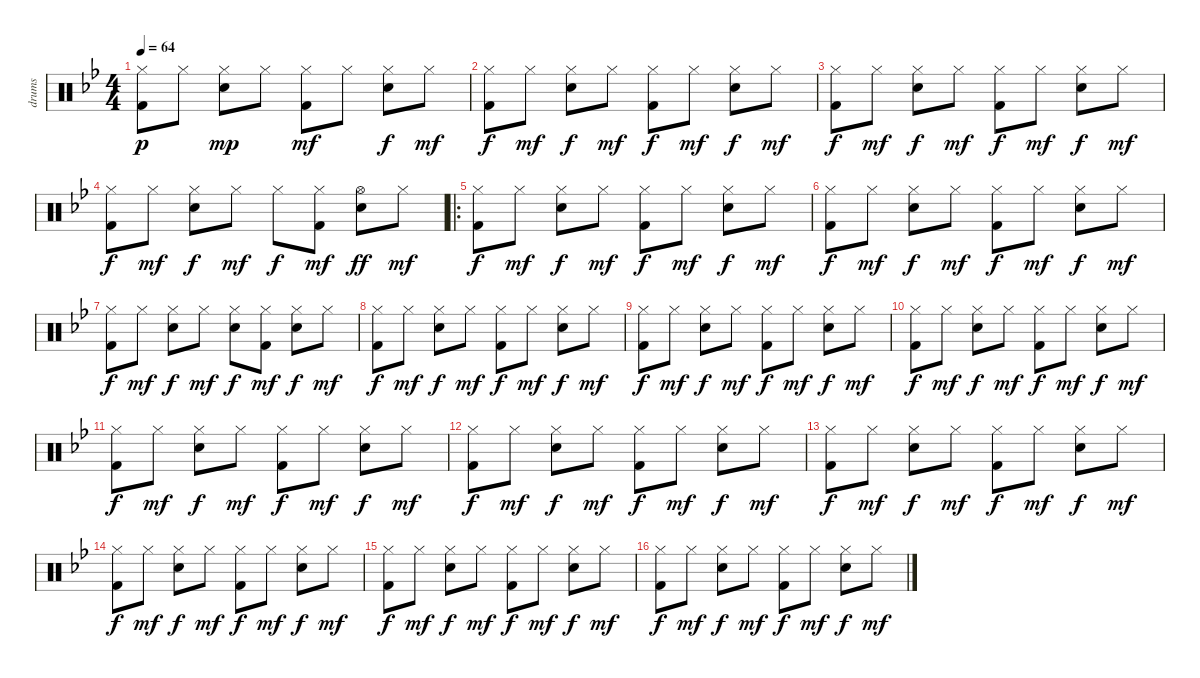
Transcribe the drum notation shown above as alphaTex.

\track ("drums" "drums") {instrument percussion}
\staff {score}
\articulation defaults
\ts (4 4)
\tempo 64
\clef neutral
\ks gminor
("Hi-Hat (closed)" "Kick (hit) 2").8{dy p} "Hi-Hat (closed)".8 ("Hi-Hat (closed)" "Snare (hit) 2").8{dy mp} "Hi-Hat (closed)".8 ("Hi-Hat (closed)" "Kick (hit) 2").8{dy mf} "Hi-Hat (closed)".8 ("Hi-Hat (closed)" "Snare (hit) 2").8{dy f} "Hi-Hat (closed)".8{dy mf} |
("Hi-Hat (closed)" "Kick (hit) 2").8{dy f} "Hi-Hat (closed)".8{dy mf} ("Hi-Hat (closed)" "Snare (hit) 2").8{dy f} "Hi-Hat (closed)".8{dy mf} ("Hi-Hat (closed)" "Kick (hit) 2").8{dy f} "Hi-Hat (closed)".8{dy mf} ("Hi-Hat (closed)" "Snare (hit) 2").8{dy f} "Hi-Hat (closed)".8{dy mf} |
("Hi-Hat (closed)" "Kick (hit) 2").8{dy f} "Hi-Hat (closed)".8{dy mf} ("Hi-Hat (closed)" "Snare (hit) 2").8{dy f} "Hi-Hat (closed)".8{dy mf} ("Hi-Hat (closed)" "Kick (hit) 2").8{dy f} "Hi-Hat (closed)".8{dy mf} ("Hi-Hat (closed)" "Snare (hit) 2").8{dy f} "Hi-Hat (closed)".8{dy mf} |
("Hi-Hat (closed)" "Kick (hit) 2").8{dy f} "Hi-Hat (closed)".8{dy mf} ("Hi-Hat (closed)" "Snare (hit) 2").8{dy f} "Hi-Hat (closed)".8{dy mf} "Hi-Hat (closed)".8{dy f} ("Hi-Hat (closed)" "Kick (hit) 2").8{dy mf} ("Hi-Hat (open)" "Snare (hit) 2").8{dy ff} "Hi-Hat (closed)".8{dy mf} |
\ro
("Hi-Hat (closed)" "Kick (hit) 2").8{dy f} "Hi-Hat (closed)".8{dy mf} ("Hi-Hat (closed)" "Snare (hit) 2").8{dy f} "Hi-Hat (closed)".8{dy mf} ("Hi-Hat (closed)" "Kick (hit) 2").8{dy f} "Hi-Hat (closed)".8{dy mf} ("Hi-Hat (closed)" "Snare (hit) 2").8{dy f} "Hi-Hat (closed)".8{dy mf} |
("Hi-Hat (closed)" "Kick (hit) 2").8{dy f} "Hi-Hat (closed)".8{dy mf} ("Hi-Hat (closed)" "Snare (hit) 2").8{dy f} "Hi-Hat (closed)".8{dy mf} ("Hi-Hat (closed)" "Kick (hit) 2").8{dy f} "Hi-Hat (closed)".8{dy mf} ("Hi-Hat (closed)" "Snare (hit) 2").8{dy f} "Hi-Hat (closed)".8{dy mf} |
("Hi-Hat (closed)" "Kick (hit) 2").8{dy f} "Hi-Hat (closed)".8{dy mf} ("Hi-Hat (closed)" "Snare (hit) 2").8{dy f} "Hi-Hat (closed)".8{dy mf} ("Hi-Hat (closed)" "Snare (hit) 2").8{dy f} ("Hi-Hat (closed)" "Kick (hit) 2").8{dy mf} ("Hi-Hat (closed)" "Snare (hit) 2").8{dy f} "Hi-Hat (closed)".8{dy mf} |
("Hi-Hat (closed)" "Kick (hit) 2").8{dy f} "Hi-Hat (closed)".8{dy mf} ("Hi-Hat (closed)" "Snare (hit) 2").8{dy f} "Hi-Hat (closed)".8{dy mf} ("Hi-Hat (closed)" "Kick (hit) 2").8{dy f} "Hi-Hat (closed)".8{dy mf} ("Hi-Hat (closed)" "Snare (hit) 2").8{dy f} "Hi-Hat (closed)".8{dy mf} |
("Hi-Hat (closed)" "Kick (hit) 2").8{dy f} "Hi-Hat (closed)".8{dy mf} ("Hi-Hat (closed)" "Snare (hit) 2").8{dy f} "Hi-Hat (closed)".8{dy mf} ("Hi-Hat (closed)" "Kick (hit) 2").8{dy f} "Hi-Hat (closed)".8{dy mf} ("Hi-Hat (closed)" "Snare (hit) 2").8{dy f} "Hi-Hat (closed)".8{dy mf} |
("Hi-Hat (closed)" "Kick (hit) 2").8{dy f} "Hi-Hat (closed)".8{dy mf} ("Hi-Hat (closed)" "Snare (hit) 2").8{dy f} "Hi-Hat (closed)".8{dy mf} ("Hi-Hat (closed)" "Kick (hit) 2").8{dy f} "Hi-Hat (closed)".8{dy mf} ("Hi-Hat (closed)" "Snare (hit) 2").8{dy f} "Hi-Hat (closed)".8{dy mf} |
("Hi-Hat (closed)" "Kick (hit) 2").8{dy f} "Hi-Hat (closed)".8{dy mf} ("Hi-Hat (closed)" "Snare (hit) 2").8{dy f} "Hi-Hat (closed)".8{dy mf} ("Hi-Hat (closed)" "Kick (hit) 2").8{dy f} "Hi-Hat (closed)".8{dy mf} ("Hi-Hat (closed)" "Snare (hit) 2").8{dy f} "Hi-Hat (closed)".8{dy mf} |
("Hi-Hat (closed)" "Kick (hit) 2").8{dy f} "Hi-Hat (closed)".8{dy mf} ("Hi-Hat (closed)" "Snare (hit) 2").8{dy f} "Hi-Hat (closed)".8{dy mf} ("Hi-Hat (closed)" "Kick (hit) 2").8{dy f} "Hi-Hat (closed)".8{dy mf} ("Hi-Hat (closed)" "Snare (hit) 2").8{dy f} "Hi-Hat (closed)".8{dy mf} |
("Hi-Hat (closed)" "Kick (hit) 2").8{dy f} "Hi-Hat (closed)".8{dy mf} ("Hi-Hat (closed)" "Snare (hit) 2").8{dy f} "Hi-Hat (closed)".8{dy mf} ("Hi-Hat (closed)" "Kick (hit) 2").8{dy f} "Hi-Hat (closed)".8{dy mf} ("Hi-Hat (closed)" "Snare (hit) 2").8{dy f} "Hi-Hat (closed)".8{dy mf} |
("Hi-Hat (closed)" "Kick (hit) 2").8{dy f} "Hi-Hat (closed)".8{dy mf} ("Hi-Hat (closed)" "Snare (hit) 2").8{dy f} "Hi-Hat (closed)".8{dy mf} ("Hi-Hat (closed)" "Kick (hit) 2").8{dy f} "Hi-Hat (closed)".8{dy mf} ("Hi-Hat (closed)" "Snare (hit) 2").8{dy f} "Hi-Hat (closed)".8{dy mf} |
("Hi-Hat (closed)" "Kick (hit) 2").8{dy f} "Hi-Hat (closed)".8{dy mf} ("Hi-Hat (closed)" "Snare (hit) 2").8{dy f} "Hi-Hat (closed)".8{dy mf} ("Hi-Hat (closed)" "Kick (hit) 2").8{dy f} "Hi-Hat (closed)".8{dy mf} ("Hi-Hat (closed)" "Snare (hit) 2").8{dy f} "Hi-Hat (closed)".8{dy mf} |
("Hi-Hat (closed)" "Kick (hit) 2").8{dy f} "Hi-Hat (closed)".8{dy mf} ("Hi-Hat (closed)" "Snare (hit) 2").8{dy f} "Hi-Hat (closed)".8{dy mf} ("Hi-Hat (closed)" "Kick (hit) 2").8{dy f} "Hi-Hat (closed)".8{dy mf} ("Hi-Hat (closed)" "Snare (hit) 2").8{dy f} "Hi-Hat (closed)".8{dy mf}
